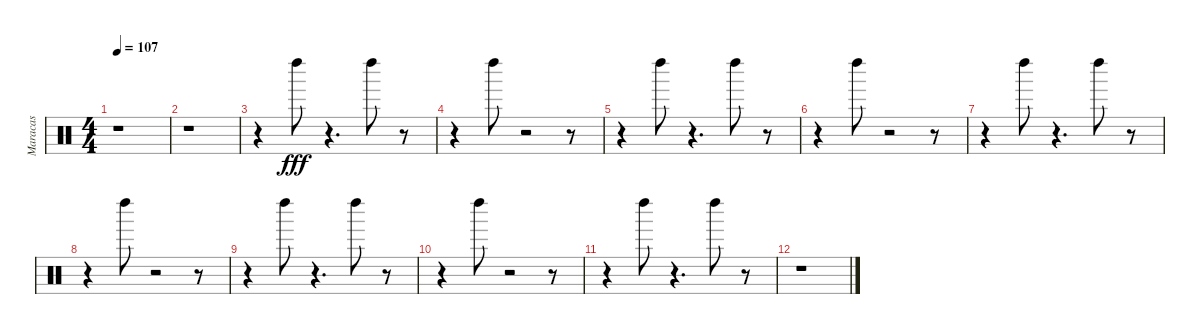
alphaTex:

\track ("Maracas" "Maracas") {instrument percussion}
\staff {score}
\articulation defaults
\ts (4 4)
\tempo 107
\clef neutral
\ks c
r.1{dy fff} |
r.1 |
r.4 "Left Maraca (hit)".8 r.4{d} "Left Maraca (hit)".8 r.8 |
r.4 "Left Maraca (hit)".8 r.2 r.8 |
r.4 "Left Maraca (hit)".8 r.4{d} "Left Maraca (hit)".8 r.8 |
r.4 "Left Maraca (hit)".8 r.2 r.8 |
r.4 "Left Maraca (hit)".8 r.4{d} "Left Maraca (hit)".8 r.8 |
r.4 "Left Maraca (hit)".8 r.2 r.8 |
r.4 "Left Maraca (hit)".8 r.4{d} "Left Maraca (hit)".8 r.8 |
r.4 "Left Maraca (hit)".8 r.2 r.8 |
r.4 "Left Maraca (hit)".8 r.4{d} "Left Maraca (hit)".8 r.8 |
r.1
